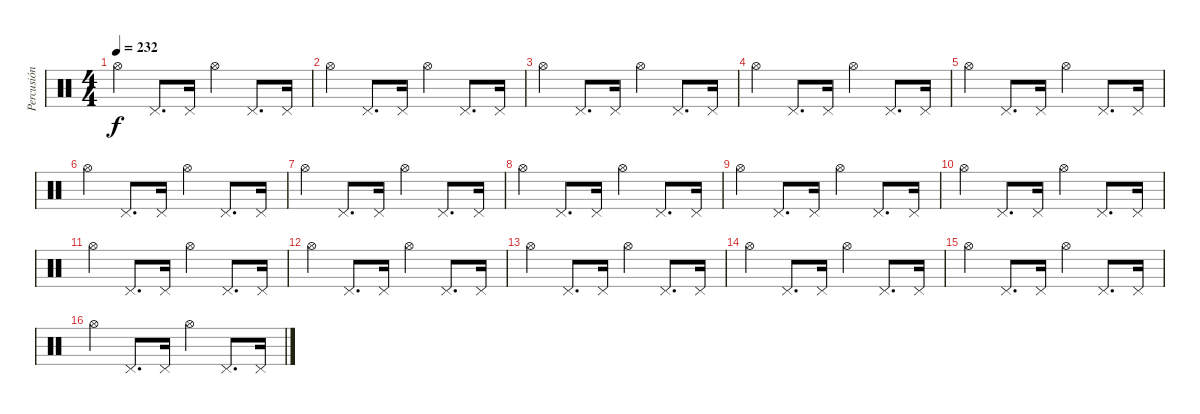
\track ("Percusión" "Percusión") {instrument percussion}
\staff {score}
\articulation defaults
\ts (4 4)
\tempo 232
\clef neutral
\ks c "Hi-Hat (open)".4{dy f} "Pedal Hi-Hat (hit)".8{d} "Pedal Hi-Hat (hit)".16 "Hi-Hat (open)".4 "Pedal Hi-Hat (hit)".8{d} "Pedal Hi-Hat (hit)".16
|
"Hi-Hat (open)".4 "Pedal Hi-Hat (hit)".8{d} "Pedal Hi-Hat (hit)".16 "Hi-Hat (open)".4 "Pedal Hi-Hat (hit)".8{d} "Pedal Hi-Hat (hit)".16 |
"Hi-Hat (open)".4 "Pedal Hi-Hat (hit)".8{d} "Pedal Hi-Hat (hit)".16 "Hi-Hat (open)".4 "Pedal Hi-Hat (hit)".8{d} "Pedal Hi-Hat (hit)".16 |
"Hi-Hat (open)".4 "Pedal Hi-Hat (hit)".8{d} "Pedal Hi-Hat (hit)".16 "Hi-Hat (open)".4 "Pedal Hi-Hat (hit)".8{d} "Pedal Hi-Hat (hit)".16 |
"Hi-Hat (open)".4 "Pedal Hi-Hat (hit)".8{d} "Pedal Hi-Hat (hit)".16 "Hi-Hat (open)".4 "Pedal Hi-Hat (hit)".8{d} "Pedal Hi-Hat (hit)".16 |
"Hi-Hat (open)".4 "Pedal Hi-Hat (hit)".8{d} "Pedal Hi-Hat (hit)".16 "Hi-Hat (open)".4 "Pedal Hi-Hat (hit)".8{d} "Pedal Hi-Hat (hit)".16 |
"Hi-Hat (open)".4 "Pedal Hi-Hat (hit)".8{d} "Pedal Hi-Hat (hit)".16 "Hi-Hat (open)".4 "Pedal Hi-Hat (hit)".8{d} "Pedal Hi-Hat (hit)".16 |
"Hi-Hat (open)".4 "Pedal Hi-Hat (hit)".8{d} "Pedal Hi-Hat (hit)".16 "Hi-Hat (open)".4 "Pedal Hi-Hat (hit)".8{d} "Pedal Hi-Hat (hit)".16 |
"Hi-Hat (open)".4 "Pedal Hi-Hat (hit)".8{d} "Pedal Hi-Hat (hit)".16 "Hi-Hat (open)".4 "Pedal Hi-Hat (hit)".8{d} "Pedal Hi-Hat (hit)".16 |
"Hi-Hat (open)".4 "Pedal Hi-Hat (hit)".8{d} "Pedal Hi-Hat (hit)".16 "Hi-Hat (open)".4 "Pedal Hi-Hat (hit)".8{d} "Pedal Hi-Hat (hit)".16 |
"Hi-Hat (open)".4 "Pedal Hi-Hat (hit)".8{d} "Pedal Hi-Hat (hit)".16 "Hi-Hat (open)".4 "Pedal Hi-Hat (hit)".8{d} "Pedal Hi-Hat (hit)".16 |
"Hi-Hat (open)".4 "Pedal Hi-Hat (hit)".8{d} "Pedal Hi-Hat (hit)".16 "Hi-Hat (open)".4 "Pedal Hi-Hat (hit)".8{d} "Pedal Hi-Hat (hit)".16 |
"Hi-Hat (open)".4 "Pedal Hi-Hat (hit)".8{d} "Pedal Hi-Hat (hit)".16 "Hi-Hat (open)".4 "Pedal Hi-Hat (hit)".8{d} "Pedal Hi-Hat (hit)".16 |
"Hi-Hat (open)".4 "Pedal Hi-Hat (hit)".8{d} "Pedal Hi-Hat (hit)".16 "Hi-Hat (open)".4 "Pedal Hi-Hat (hit)".8{d} "Pedal Hi-Hat (hit)".16 |
"Hi-Hat (open)".4 "Pedal Hi-Hat (hit)".8{d} "Pedal Hi-Hat (hit)".16 "Hi-Hat (open)".4 "Pedal Hi-Hat (hit)".8{d} "Pedal Hi-Hat (hit)".16 |
"Hi-Hat (open)".4 "Pedal Hi-Hat (hit)".8{d} "Pedal Hi-Hat (hit)".16 "Hi-Hat (open)".4 "Pedal Hi-Hat (hit)".8{d} "Pedal Hi-Hat (hit)".16
